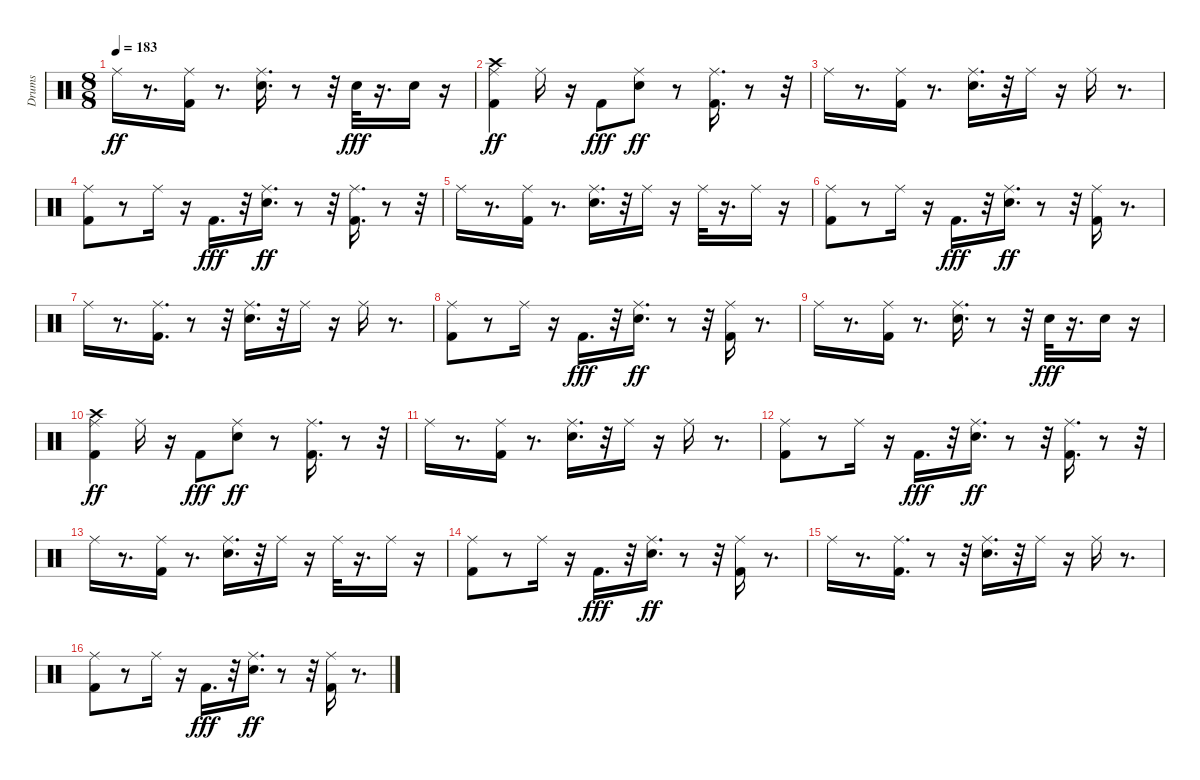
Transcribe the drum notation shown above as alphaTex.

\track ("Drums" "Drums") {instrument percussion}
\staff {score}
\articulation defaults
\ts (8 8)
\tempo 183
\clef neutral
\ks c "Ride (middle)".16{dy ff}
r.8{d} ("Kick (hit) 2" "Ride (middle)").16 r.8{d} ("Snare (hit) 2" "Ride (middle)").16{d} r.8 r.32 "Snare (hit) 2".32{dy fff} r.16{d} "Snare (hit) 2".16 r.16 |
("Kick (hit) 2" "Ride (middle)" "Crash high (hit)").4{dy ff} "Ride (middle)".16 r.16 "Kick (hit) 2".8{dy fff} ("Snare (hit) 2" "Ride (middle)").8{dy ff} r.8 ("Kick (hit) 2" "Ride (middle)").16{d} r.8 r.32 |
"Ride (middle)".16 r.8{d} ("Kick (hit) 2" "Ride (middle)").16 r.8{d} ("Snare (hit) 2" "Ride (middle)").16{d} r.32 "Ride (middle)".16 r.16 "Ride (middle)".16 r.8{d} |
("Kick (hit) 2" "Ride (middle)").8 r.8 "Ride (middle)".16 r.16 "Kick (hit) 2".16{d dy fff} r.32 ("Snare (hit) 2" "Ride (middle)").16{d dy ff} r.8 r.32 ("Kick (hit) 2" "Ride (middle)").16{d} r.8 r.32 |
"Ride (middle)".16 r.8{d} ("Kick (hit) 2" "Ride (middle)").16 r.8{d} ("Snare (hit) 2" "Ride (middle)").16{d} r.32 "Ride (middle)".16 r.16 "Ride (middle)".32 r.16{d} "Ride (middle)".16 r.16 |
("Kick (hit) 2" "Ride (middle)").8 r.8 "Ride (middle)".16 r.16 "Kick (hit) 2".16{d dy fff} r.32 ("Snare (hit) 2" "Ride (middle)").16{d dy ff} r.8 r.32 ("Kick (hit) 2" "Ride (middle)").16 r.8{d} |
"Ride (middle)".16 r.8{d} ("Kick (hit) 2" "Ride (middle)").16{d} r.8 r.32 ("Snare (hit) 2" "Ride (middle)").16{d} r.32 "Ride (middle)".16 r.16 "Ride (middle)".16 r.8{d} |
("Kick (hit) 2" "Ride (middle)").8 r.8 "Ride (middle)".16 r.16 "Kick (hit) 2".16{d dy fff} r.32 ("Snare (hit) 2" "Ride (middle)").16{d dy ff} r.8 r.32 ("Kick (hit) 2" "Ride (middle)").16 r.8{d} |
"Ride (middle)".16 r.8{d} ("Kick (hit) 2" "Ride (middle)").16 r.8{d} ("Snare (hit) 2" "Ride (middle)").16{d} r.8 r.32 "Snare (hit) 2".32{dy fff} r.16{d} "Snare (hit) 2".16 r.16 |
("Kick (hit) 2" "Ride (middle)" "Crash high (hit)").4{dy ff} "Ride (middle)".16 r.16 "Kick (hit) 2".8{dy fff} ("Snare (hit) 2" "Ride (middle)").8{dy ff} r.8 ("Kick (hit) 2" "Ride (middle)").16{d} r.8 r.32 |
"Ride (middle)".16 r.8{d} ("Kick (hit) 2" "Ride (middle)").16 r.8{d} ("Snare (hit) 2" "Ride (middle)").16{d} r.32 "Ride (middle)".16 r.16 "Ride (middle)".16 r.8{d} |
("Kick (hit) 2" "Ride (middle)").8 r.8 "Ride (middle)".16 r.16 "Kick (hit) 2".16{d dy fff} r.32 ("Snare (hit) 2" "Ride (middle)").16{d dy ff} r.8 r.32 ("Kick (hit) 2" "Ride (middle)").16{d} r.8 r.32 |
"Ride (middle)".16 r.8{d} ("Kick (hit) 2" "Ride (middle)").16 r.8{d} ("Snare (hit) 2" "Ride (middle)").16{d} r.32 "Ride (middle)".16 r.16 "Ride (middle)".32 r.16{d} "Ride (middle)".16 r.16 |
("Kick (hit) 2" "Ride (middle)").8 r.8 "Ride (middle)".16 r.16 "Kick (hit) 2".16{d dy fff} r.32 ("Snare (hit) 2" "Ride (middle)").16{d dy ff} r.8 r.32 ("Kick (hit) 2" "Ride (middle)").16 r.8{d} |
"Ride (middle)".16 r.8{d} ("Kick (hit) 2" "Ride (middle)").16{d} r.8 r.32 ("Snare (hit) 2" "Ride (middle)").16{d} r.32 "Ride (middle)".16 r.16 "Ride (middle)".16 r.8{d} |
("Kick (hit) 2" "Ride (middle)").8 r.8 "Ride (middle)".16 r.16 "Kick (hit) 2".16{d dy fff} r.32 ("Snare (hit) 2" "Ride (middle)").16{d dy ff} r.8 r.32 ("Kick (hit) 2" "Ride (middle)").16 r.8{d}
